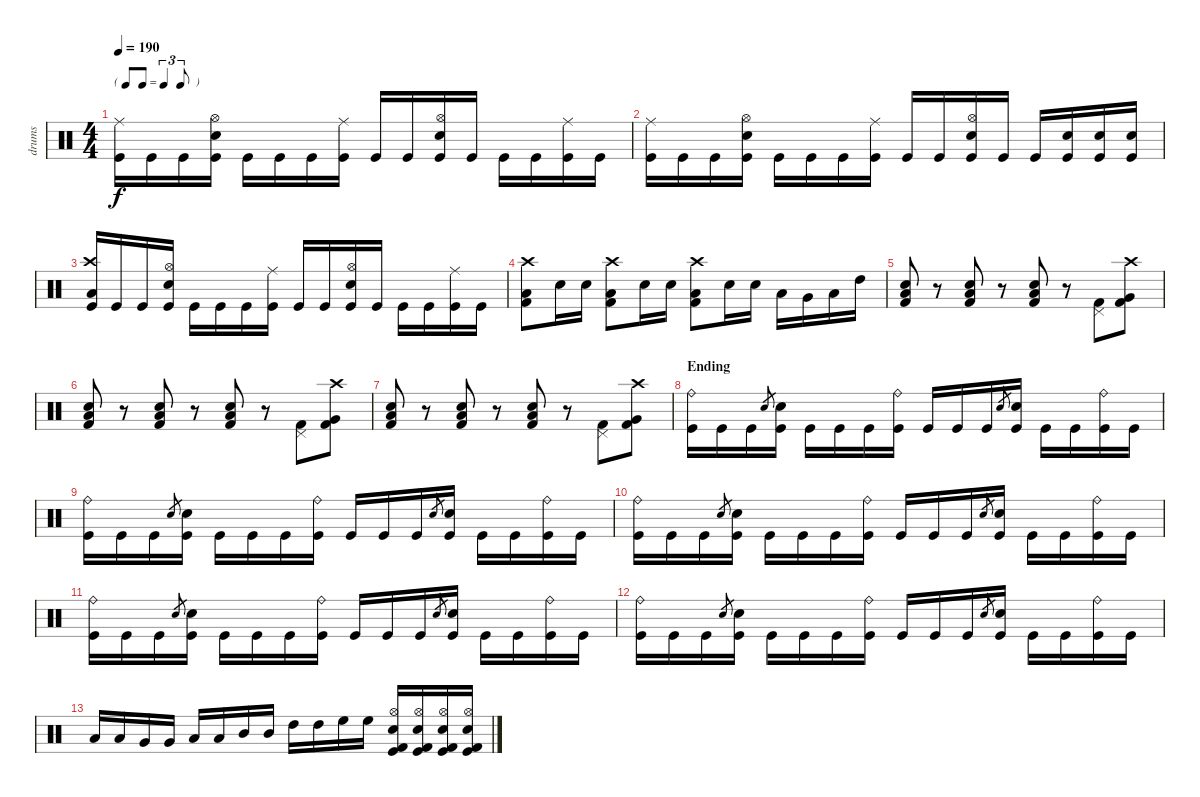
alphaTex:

\track ("drums" "drums") {instrument percussion}
\staff {score}
\articulation defaults
\ts (4 4)
\tf triplet8th
\tempo 190
\clef neutral
\ks c
("Ride (middle)" "Kick (hit)").16{dy f} "Kick (hit)".16 "Kick (hit)".16 ("Hi-Hat (open)" "Electric Snare (hit)" "Kick (hit)").16 "Kick (hit)".16 "Kick (hit)".16 "Kick (hit)".16 ("Ride (middle)" "Kick (hit)").16 "Kick (hit)".16 "Kick (hit)".16 ("Hi-Hat (open)" "Electric Snare (hit)" "Kick (hit)").16 "Kick (hit)".16 "Kick (hit)".16 "Kick (hit)".16 ("Ride (middle)" "Kick (hit)").16 "Kick (hit)".16 |
("Ride (middle)" "Kick (hit)").16 "Kick (hit)".16 "Kick (hit)".16 ("Hi-Hat (open)" "Electric Snare (hit)" "Kick (hit)").16 "Kick (hit)".16 "Kick (hit)".16 "Kick (hit)".16 ("Ride (middle)" "Kick (hit)").16 "Kick (hit)".16 "Kick (hit)".16 ("Hi-Hat (open)" "Electric Snare (hit)" "Kick (hit)").16 "Kick (hit)".16 "Kick (hit)".16 ("Snare (hit) 2" "Kick (hit)").16 ("Snare (hit) 2" "Kick (hit)").16 ("Snare (hit) 2" "Kick (hit)").16 |
("Crash high (hit)" "Low Tom (hit)" "Kick (hit)").16 "Kick (hit)".16 "Kick (hit)".16 ("Hi-Hat (open)" "Electric Snare (hit)" "Kick (hit)").16 "Kick (hit)".16 "Kick (hit)".16 "Kick (hit)".16 ("Ride (middle)" "Kick (hit)").16 "Kick (hit)".16 "Kick (hit)".16 ("Hi-Hat (open)" "Electric Snare (hit)" "Kick (hit)").16 "Kick (hit)".16 "Kick (hit)".16 "Kick (hit)".16 ("Ride (middle)" "Kick (hit)").16 "Kick (hit)".16 |
("Crash high (hit)" "Low Floor Tom (hit)" "Kick (hit) 2").8 "Snare (hit) 2".16 "Snare (hit) 2".16 ("Crash high (hit)" "Low Floor Tom (hit)" "Kick (hit) 2").8 "Snare (hit) 2".16 "Snare (hit) 2".16 ("Crash high (hit)" "Low Floor Tom (hit)" "Kick (hit) 2").8 "Snare (hit) 2".16 "Snare (hit) 2".16 "Low Floor Tom (hit)".16 "Very Low Tom (hit)".16 "Low Tom (hit)".16 "High Tom (hit)".16 |
("Snare (hit) 2" "Low Floor Tom (hit)" "Kick (hit) 2").8 r.8 ("Snare (hit) 2" "Low Floor Tom (hit)" "Kick (hit) 2").8 r.8 ("Snare (hit) 2" "Low Floor Tom (hit)" "Kick (hit) 2").8 r.8 ("Kick (hit) 2" "Pedal Hi-Hat (hit)").8 ("Crash high (hit)" "Very Low Tom (hit)" "Kick (hit) 2").8 |
("Snare (hit) 2" "Low Floor Tom (hit)" "Kick (hit) 2").8 r.8 ("Snare (hit) 2" "Low Floor Tom (hit)" "Kick (hit) 2").8 r.8 ("Snare (hit) 2" "Low Floor Tom (hit)" "Kick (hit) 2").8 r.8 ("Kick (hit) 2" "Pedal Hi-Hat (hit)").8 ("Crash high (hit)" "Very Low Tom (hit)" "Kick (hit) 2").8 |
("Snare (hit) 2" "Low Floor Tom (hit)" "Kick (hit) 2").8 r.8 ("Snare (hit) 2" "Low Floor Tom (hit)" "Kick (hit) 2").8 r.8 ("Snare (hit) 2" "Low Floor Tom (hit)" "Kick (hit) 2").8 r.8 ("Kick (hit) 2" "Pedal Hi-Hat (hit)").8 ("Crash high (hit)" "Very Low Tom (hit)" "Kick (hit) 2").8 |
\section ("" "Ending")
("Kick (hit)" "Ride (bell)").16 "Kick (hit)".16 "Kick (hit)".16 "Electric Snare (hit)".8{gr} ("Kick (hit)" "Electric Snare (hit)").16 "Kick (hit)".16 "Kick (hit)".16 "Kick (hit)".16 ("Kick (hit)" "Ride (bell)").16 "Kick (hit)".16 "Kick (hit)".16 "Kick (hit)".16 "Electric Snare (hit)".8{gr} ("Kick (hit)" "Electric Snare (hit)").16 "Kick (hit)".16 "Kick (hit)".16 ("Kick (hit)" "Ride (bell)").16 "Kick (hit)".16 |
("Kick (hit)" "Ride (bell)").16 "Kick (hit)".16 "Kick (hit)".16 "Electric Snare (hit)".8{gr} ("Kick (hit)" "Electric Snare (hit)").16 "Kick (hit)".16 "Kick (hit)".16 "Kick (hit)".16 ("Kick (hit)" "Ride (bell)").16 "Kick (hit)".16 "Kick (hit)".16 "Kick (hit)".16 "Electric Snare (hit)".8{gr} ("Kick (hit)" "Electric Snare (hit)").16 "Kick (hit)".16 "Kick (hit)".16 ("Kick (hit)" "Ride (bell)").16 "Kick (hit)".16 |
("Kick (hit)" "Ride (bell)").16 "Kick (hit)".16 "Kick (hit)".16 "Electric Snare (hit)".8{gr} ("Kick (hit)" "Electric Snare (hit)").16 "Kick (hit)".16 "Kick (hit)".16 "Kick (hit)".16 ("Kick (hit)" "Ride (bell)").16 "Kick (hit)".16 "Kick (hit)".16 "Kick (hit)".16 "Electric Snare (hit)".8{gr} ("Kick (hit)" "Electric Snare (hit)").16 "Kick (hit)".16 "Kick (hit)".16 ("Kick (hit)" "Ride (bell)").16 "Kick (hit)".16 |
("Kick (hit)" "Ride (bell)").16 "Kick (hit)".16 "Kick (hit)".16 "Electric Snare (hit)".8{gr} ("Kick (hit)" "Electric Snare (hit)").16 "Kick (hit)".16 "Kick (hit)".16 "Kick (hit)".16 ("Kick (hit)" "Ride (bell)").16 "Kick (hit)".16 "Kick (hit)".16 "Kick (hit)".16 "Electric Snare (hit)".8{gr} ("Kick (hit)" "Electric Snare (hit)").16 "Kick (hit)".16 "Kick (hit)".16 ("Kick (hit)" "Ride (bell)").16 "Kick (hit)".16 |
("Kick (hit)" "Ride (bell)").16 "Kick (hit)".16 "Kick (hit)".16 "Electric Snare (hit)".8{gr} ("Kick (hit)" "Electric Snare (hit)").16 "Kick (hit)".16 "Kick (hit)".16 "Kick (hit)".16 ("Kick (hit)" "Ride (bell)").16 "Kick (hit)".16 "Kick (hit)".16 "Kick (hit)".16 "Electric Snare (hit)".8{gr} ("Kick (hit)" "Electric Snare (hit)").16 "Kick (hit)".16 "Kick (hit)".16 ("Kick (hit)" "Ride (bell)").16 "Kick (hit)".16 |
"Low Floor Tom (hit)".16 "Low Floor Tom (hit)".16 "Very Low Tom (hit)".16 "Very Low Tom (hit)".16 "Low Tom (hit)".16 "Low Tom (hit)".16 "Mid Tom (hit)".16 "Mid Tom (hit)".16 "High Tom (hit)".16 "High Tom (hit)".16 "High Floor Tom (hit)".16 "High Floor Tom (hit)".16 ("Hi-Hat (open)" "Snare (hit) 2" "Kick (hit) 2" "Kick (hit)").16 ("Hi-Hat (open)" "Snare (hit) 2" "Kick (hit) 2" "Kick (hit)").16 ("Hi-Hat (open)" "Snare (hit) 2" "Kick (hit) 2" "Kick (hit)").16 ("Hi-Hat (open)" "Snare (hit) 2" "Kick (hit) 2" "Kick (hit)").16
